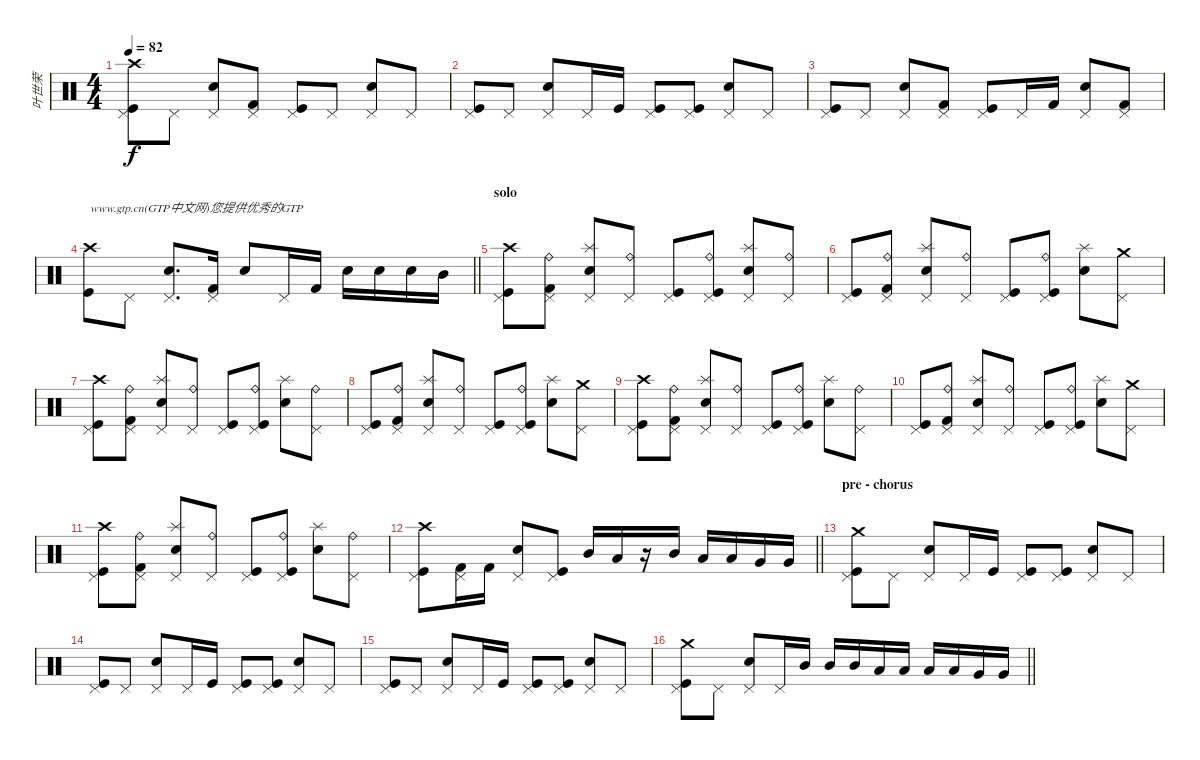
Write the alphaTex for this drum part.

\track ("叶世荣" "叶世荣") {instrument percussion}
\staff {score}
\articulation defaults
\ts (4 4)
\tempo 82
\clef neutral
\ks c
("Crash high (hit)" "Pedal Hi-Hat (hit)" "Kick (hit)").8{dy f} "Pedal Hi-Hat (hit)".8 ("Electric Snare (hit)" "Pedal Hi-Hat (hit)").8 ("Pedal Hi-Hat (hit)" "Kick (hit) 2").8 ("Pedal Hi-Hat (hit)" "Kick (hit)").8 "Pedal Hi-Hat (hit)".8 ("Electric Snare (hit)" "Pedal Hi-Hat (hit)").8 "Pedal Hi-Hat (hit)".8 |
("Pedal Hi-Hat (hit)" "Kick (hit)").8 "Pedal Hi-Hat (hit)".8 ("Electric Snare (hit)" "Pedal Hi-Hat (hit)").8 "Pedal Hi-Hat (hit)".16 "Kick (hit)".16 ("Pedal Hi-Hat (hit)" "Kick (hit)").8 ("Pedal Hi-Hat (hit)" "Kick (hit)").8 ("Electric Snare (hit)" "Pedal Hi-Hat (hit)").8 "Pedal Hi-Hat (hit)".8 |
("Pedal Hi-Hat (hit)" "Kick (hit)").8 "Pedal Hi-Hat (hit)".8 ("Electric Snare (hit)" "Pedal Hi-Hat (hit)").8 ("Kick (hit) 2" "Pedal Hi-Hat (hit)").8 ("Pedal Hi-Hat (hit)" "Kick (hit)").8 "Pedal Hi-Hat (hit)".16 "Kick (hit) 2".16 ("Pedal Hi-Hat (hit)" "Electric Snare (hit)").8 ("Pedal Hi-Hat (hit)" "Kick (hit) 2").8 |
\barLineRight lightlight
("Crash high (hit)" "Kick (hit)").8{txt "www.gtp.cn(GTP中文网)您提供优秀的GTP"} "Pedal Hi-Hat (hit)".8 ("Electric Snare (hit)" "Pedal Hi-Hat (hit)").8{d} ("Kick (hit) 2" "Pedal Hi-Hat (hit)").16 "Electric Snare (hit)".8 "Pedal Hi-Hat (hit)".16 "Kick (hit) 2".16 "Electric Snare (hit)".16 "Electric Snare (hit)".16 "Electric Snare (hit)".16 "Mid Tom (hit)".16 |
\section ("" "solo")
("Crash high (hit)" "Pedal Hi-Hat (hit)" "Kick (hit)").8 ("Ride (bell)" "Pedal Hi-Hat (hit)" "Kick (hit) 2").8 ("Pedal Hi-Hat (hit)" "Splash (hit)" "Snare (hit) 2").8 ("Pedal Hi-Hat (hit)" "Ride (bell)").8 ("Pedal Hi-Hat (hit)" "Kick (hit)").8 ("Pedal Hi-Hat (hit)" "Ride (bell)" "Kick (hit)").8 ("Pedal Hi-Hat (hit)" "Splash (hit)" "Snare (hit) 2").8 ("Pedal Hi-Hat (hit)" "Ride (bell)").8 |
("Pedal Hi-Hat (hit)" "Kick (hit)").8 ("Pedal Hi-Hat (hit)" "Ride (bell)" "Kick (hit) 2").8 ("Pedal Hi-Hat (hit)" "Splash (hit)" "Snare (hit) 2").8 ("Pedal Hi-Hat (hit)" "Ride (bell)").8 ("Pedal Hi-Hat (hit)" "Kick (hit)").8 ("Pedal Hi-Hat (hit)" "Ride (bell)" "Kick (hit)").8 ("Splash (hit)" "Snare (hit) 2").8 ("Pedal Hi-Hat (hit)" "Crash medium (hit)").8 |
("Crash high (hit)" "Pedal Hi-Hat (hit)" "Kick (hit)").8 ("Pedal Hi-Hat (hit)" "Ride (bell)" "Kick (hit) 2").8 ("Pedal Hi-Hat (hit)" "Splash (hit)" "Snare (hit) 2").8 ("Pedal Hi-Hat (hit)" "Ride (bell)").8 ("Pedal Hi-Hat (hit)" "Kick (hit)").8 ("Pedal Hi-Hat (hit)" "Ride (bell)" "Kick (hit)").8 ("Splash (hit)" "Snare (hit) 2").8 ("Pedal Hi-Hat (hit)" "Ride (bell)").8 |
("Pedal Hi-Hat (hit)" "Kick (hit)").8 ("Pedal Hi-Hat (hit)" "Ride (bell)" "Kick (hit) 2").8 ("Pedal Hi-Hat (hit)" "Splash (hit)" "Snare (hit) 2").8 ("Pedal Hi-Hat (hit)" "Ride (bell)").8 ("Pedal Hi-Hat (hit)" "Kick (hit)").8 ("Pedal Hi-Hat (hit)" "Ride (bell)" "Kick (hit)").8 ("Splash (hit)" "Snare (hit) 2").8 ("Pedal Hi-Hat (hit)" "Crash medium (hit)").8 |
("Crash high (hit)" "Pedal Hi-Hat (hit)" "Kick (hit)").8 ("Pedal Hi-Hat (hit)" "Ride (bell)" "Kick (hit) 2").8 ("Pedal Hi-Hat (hit)" "Splash (hit)" "Snare (hit) 2").8 ("Pedal Hi-Hat (hit)" "Ride (bell)").8 ("Pedal Hi-Hat (hit)" "Kick (hit)").8 ("Pedal Hi-Hat (hit)" "Ride (bell)" "Kick (hit)").8 ("Splash (hit)" "Snare (hit) 2").8 ("Pedal Hi-Hat (hit)" "Ride (bell)").8 |
("Pedal Hi-Hat (hit)" "Kick (hit)").8 ("Pedal Hi-Hat (hit)" "Ride (bell)" "Kick (hit) 2").8 ("Pedal Hi-Hat (hit)" "Splash (hit)" "Snare (hit) 2").8 ("Pedal Hi-Hat (hit)" "Ride (bell)").8 ("Pedal Hi-Hat (hit)" "Kick (hit)").8 ("Pedal Hi-Hat (hit)" "Ride (bell)" "Kick (hit)").8 ("Splash (hit)" "Snare (hit) 2").8 ("Pedal Hi-Hat (hit)" "Crash medium (hit)").8 |
("Crash high (hit)" "Pedal Hi-Hat (hit)" "Kick (hit)").8 ("Pedal Hi-Hat (hit)" "Ride (bell)" "Kick (hit) 2").8 ("Pedal Hi-Hat (hit)" "Splash (hit)" "Snare (hit) 2").8 ("Pedal Hi-Hat (hit)" "Ride (bell)").8 ("Pedal Hi-Hat (hit)" "Kick (hit)").8 ("Pedal Hi-Hat (hit)" "Ride (bell)" "Kick (hit)").8 ("Splash (hit)" "Snare (hit) 2").8 ("Pedal Hi-Hat (hit)" "Ride (bell)").8 |
\barLineRight lightlight
("Crash high (hit)" "Pedal Hi-Hat (hit)" "Kick (hit)").8 ("Pedal Hi-Hat (hit)" "Kick (hit) 2").16 "Kick (hit) 2".16 ("Pedal Hi-Hat (hit)" "Electric Snare (hit)").8 ("Pedal Hi-Hat (hit)" "Kick (hit)").8 "Mid Tom (hit)".16 "Low Tom (hit)".16 r.16 "Mid Tom (hit)".16 "Low Tom (hit)".16 "Low Tom (hit)".16 "Very Low Tom (hit)".16 "Very Low Tom (hit)".16 |
\section ("" "pre - chorus")
("Crash medium (hit)" "Pedal Hi-Hat (hit)" "Kick (hit)").8 "Pedal Hi-Hat (hit)".8 ("Electric Snare (hit)" "Pedal Hi-Hat (hit)").8 "Pedal Hi-Hat (hit)".16 "Kick (hit)".16 ("Pedal Hi-Hat (hit)" "Kick (hit)").8 ("Pedal Hi-Hat (hit)" "Kick (hit)").8 ("Electric Snare (hit)" "Pedal Hi-Hat (hit)").8 "Pedal Hi-Hat (hit)".8 |
("Pedal Hi-Hat (hit)" "Kick (hit)").8 "Pedal Hi-Hat (hit)".8 ("Electric Snare (hit)" "Pedal Hi-Hat (hit)").8 "Pedal Hi-Hat (hit)".16 "Kick (hit)".16 ("Pedal Hi-Hat (hit)" "Kick (hit)").8 ("Pedal Hi-Hat (hit)" "Kick (hit)").8 ("Electric Snare (hit)" "Pedal Hi-Hat (hit)").8 "Pedal Hi-Hat (hit)".8 |
("Pedal Hi-Hat (hit)" "Kick (hit)").8 "Pedal Hi-Hat (hit)".8 ("Electric Snare (hit)" "Pedal Hi-Hat (hit)").8 "Pedal Hi-Hat (hit)".16 "Kick (hit)".16 ("Pedal Hi-Hat (hit)" "Kick (hit)").8 ("Pedal Hi-Hat (hit)" "Kick (hit)").8 ("Electric Snare (hit)" "Pedal Hi-Hat (hit)").8 "Pedal Hi-Hat (hit)".8 |
\barLineRight lightlight
("Crash medium (hit)" "Pedal Hi-Hat (hit)" "Kick (hit)").8 "Pedal Hi-Hat (hit)".8 ("Electric Snare (hit)" "Pedal Hi-Hat (hit)").8 "Pedal Hi-Hat (hit)".16 "Mid Tom (hit)".16 "Mid Tom (hit)".16 "Mid Tom (hit)".16 "Low Tom (hit)".16 "Low Tom (hit)".16 "Low Tom (hit)".16 "Low Tom (hit)".16 "Very Low Tom (hit)".16 "Very Low Tom (hit)".16
